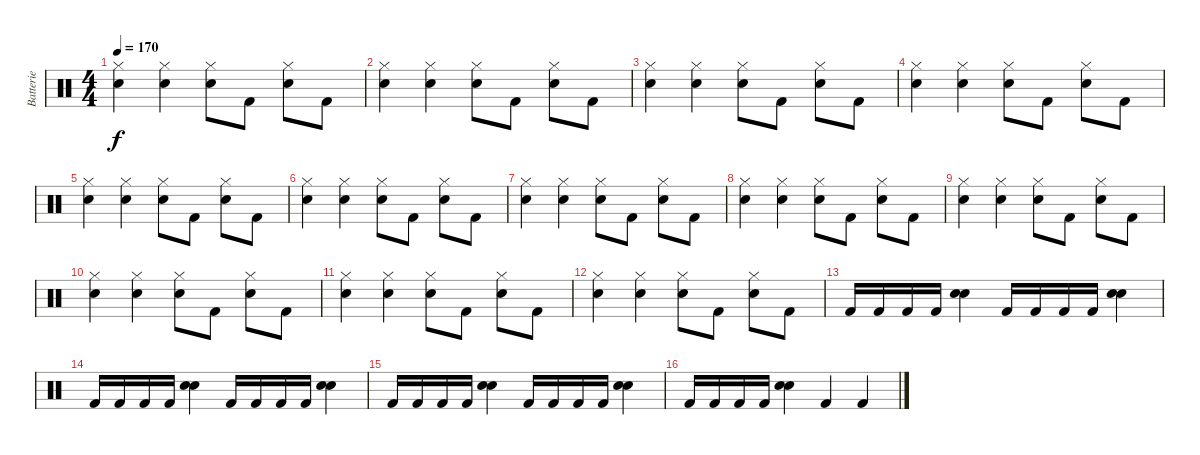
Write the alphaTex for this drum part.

\track ("Batterie" "Batterie") {instrument percussion}
\staff {score}
\articulation defaults
\ts (4 4)
\tempo 170
\clef neutral
\ks c
("Hi-Hat (closed)" "Snare (hit) 2").4{dy f} ("Hi-Hat (closed)" "Snare (hit) 2").4 ("Hi-Hat (closed)" "Snare (hit) 2").8 "Kick (hit) 2".8 ("Hi-Hat (closed)" "Snare (hit) 2").8 "Kick (hit) 2".8 |
("Hi-Hat (closed)" "Snare (hit) 2").4 ("Hi-Hat (closed)" "Snare (hit) 2").4 ("Hi-Hat (closed)" "Snare (hit) 2").8 "Kick (hit) 2".8 ("Hi-Hat (closed)" "Snare (hit) 2").8 "Kick (hit) 2".8 |
("Hi-Hat (closed)" "Snare (hit) 2").4 ("Hi-Hat (closed)" "Snare (hit) 2").4 ("Hi-Hat (closed)" "Snare (hit) 2").8 "Kick (hit) 2".8 ("Hi-Hat (closed)" "Snare (hit) 2").8 "Kick (hit) 2".8 |
("Hi-Hat (closed)" "Snare (hit) 2").4 ("Hi-Hat (closed)" "Snare (hit) 2").4 ("Hi-Hat (closed)" "Snare (hit) 2").8 "Kick (hit) 2".8 ("Hi-Hat (closed)" "Snare (hit) 2").8 "Kick (hit) 2".8 |
("Hi-Hat (closed)" "Snare (hit) 2").4 ("Hi-Hat (closed)" "Snare (hit) 2").4 ("Hi-Hat (closed)" "Snare (hit) 2").8 "Kick (hit) 2".8 ("Hi-Hat (closed)" "Snare (hit) 2").8 "Kick (hit) 2".8 |
("Hi-Hat (closed)" "Snare (hit) 2").4 ("Hi-Hat (closed)" "Snare (hit) 2").4 ("Hi-Hat (closed)" "Snare (hit) 2").8 "Kick (hit) 2".8 ("Hi-Hat (closed)" "Snare (hit) 2").8 "Kick (hit) 2".8 |
("Hi-Hat (closed)" "Snare (hit) 2").4 ("Hi-Hat (closed)" "Snare (hit) 2").4 ("Hi-Hat (closed)" "Snare (hit) 2").8 "Kick (hit) 2".8 ("Hi-Hat (closed)" "Snare (hit) 2").8 "Kick (hit) 2".8 |
("Hi-Hat (closed)" "Snare (hit) 2").4 ("Hi-Hat (closed)" "Snare (hit) 2").4 ("Hi-Hat (closed)" "Snare (hit) 2").8 "Kick (hit) 2".8 ("Hi-Hat (closed)" "Snare (hit) 2").8 "Kick (hit) 2".8 |
("Hi-Hat (closed)" "Snare (hit) 2").4 ("Hi-Hat (closed)" "Snare (hit) 2").4 ("Hi-Hat (closed)" "Snare (hit) 2").8 "Kick (hit) 2".8 ("Hi-Hat (closed)" "Snare (hit) 2").8 "Kick (hit) 2".8 |
("Hi-Hat (closed)" "Snare (hit) 2").4 ("Hi-Hat (closed)" "Snare (hit) 2").4 ("Hi-Hat (closed)" "Snare (hit) 2").8 "Kick (hit) 2".8 ("Hi-Hat (closed)" "Snare (hit) 2").8 "Kick (hit) 2".8 |
("Hi-Hat (closed)" "Snare (hit) 2").4 ("Hi-Hat (closed)" "Snare (hit) 2").4 ("Hi-Hat (closed)" "Snare (hit) 2").8 "Kick (hit) 2".8 ("Hi-Hat (closed)" "Snare (hit) 2").8 "Kick (hit) 2".8 |
("Hi-Hat (closed)" "Snare (hit) 2").4 ("Hi-Hat (closed)" "Snare (hit) 2").4 ("Hi-Hat (closed)" "Snare (hit) 2").8 "Kick (hit) 2".8 ("Hi-Hat (closed)" "Snare (hit) 2").8 "Kick (hit) 2".8 |
\section ("" "")
"Kick (hit) 2".16 "Kick (hit) 2".16 "Kick (hit) 2".16 "Kick (hit) 2".16 ("Snare (hit) 2" "Snare (hit) 2").4 "Kick (hit) 2".16 "Kick (hit) 2".16 "Kick (hit) 2".16 "Kick (hit) 2".16 ("Snare (hit) 2" "Snare (hit) 2").4 |
"Kick (hit) 2".16 "Kick (hit) 2".16 "Kick (hit) 2".16 "Kick (hit) 2".16 ("Snare (hit) 2" "Snare (hit) 2").4 "Kick (hit) 2".16 "Kick (hit) 2".16 "Kick (hit) 2".16 "Kick (hit) 2".16 ("Snare (hit) 2" "Snare (hit) 2").4 |
"Kick (hit) 2".16 "Kick (hit) 2".16 "Kick (hit) 2".16 "Kick (hit) 2".16 ("Snare (hit) 2" "Snare (hit) 2").4 "Kick (hit) 2".16 "Kick (hit) 2".16 "Kick (hit) 2".16 "Kick (hit) 2".16 ("Snare (hit) 2" "Snare (hit) 2").4 |
"Kick (hit) 2".16 "Kick (hit) 2".16 "Kick (hit) 2".16 "Kick (hit) 2".16 ("Snare (hit) 2" "Snare (hit) 2").4 "Kick (hit) 2".4 "Kick (hit) 2".4
